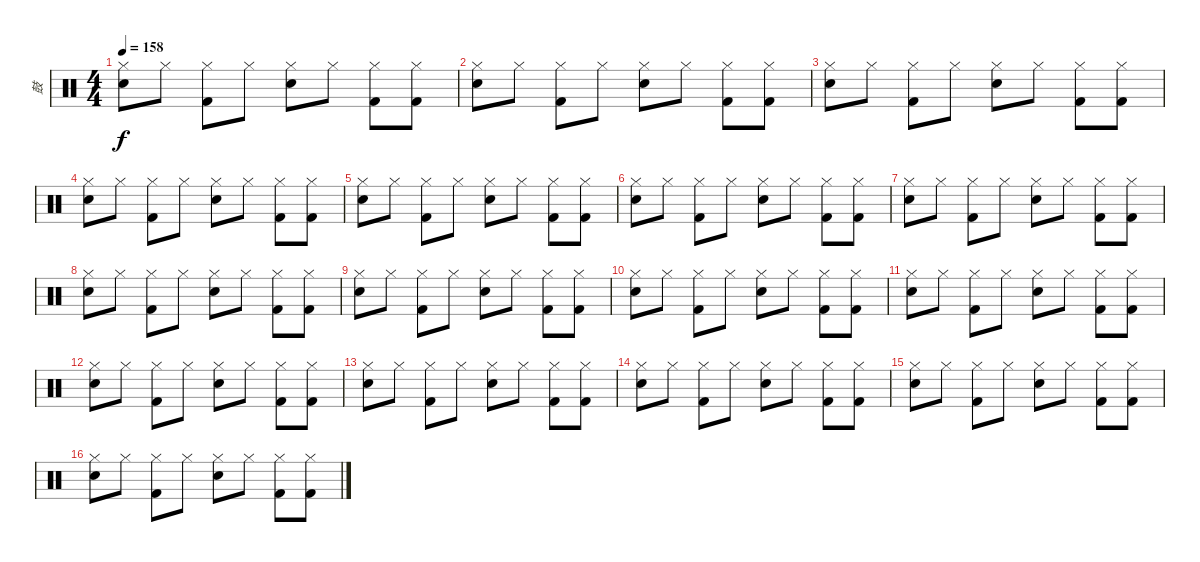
\track ("鼓" "鼓") {instrument percussion}
\staff {score}
\articulation defaults
\ts (4 4)
\tempo 158
\clef neutral
\ks c
("Hi-Hat (closed)" "Electric Snare (hit)").8{dy f} "Hi-Hat (closed)".8 ("Hi-Hat (closed)" "Kick (hit) 2").8 "Hi-Hat (closed)".8 ("Hi-Hat (closed)" "Electric Snare (hit)").8 "Hi-Hat (closed)".8 ("Hi-Hat (closed)" "Kick (hit) 2").8 ("Hi-Hat (closed)" "Kick (hit) 2").8 |
("Hi-Hat (closed)" "Electric Snare (hit)").8 "Hi-Hat (closed)".8 ("Hi-Hat (closed)" "Kick (hit) 2").8 "Hi-Hat (closed)".8 ("Hi-Hat (closed)" "Electric Snare (hit)").8 "Hi-Hat (closed)".8 ("Hi-Hat (closed)" "Kick (hit) 2").8 ("Hi-Hat (closed)" "Kick (hit) 2").8 |
("Hi-Hat (closed)" "Electric Snare (hit)").8 "Hi-Hat (closed)".8 ("Hi-Hat (closed)" "Kick (hit) 2").8 "Hi-Hat (closed)".8 ("Hi-Hat (closed)" "Electric Snare (hit)").8 "Hi-Hat (closed)".8 ("Hi-Hat (closed)" "Kick (hit) 2").8 ("Hi-Hat (closed)" "Kick (hit) 2").8 |
("Hi-Hat (closed)" "Electric Snare (hit)").8 "Hi-Hat (closed)".8 ("Hi-Hat (closed)" "Kick (hit) 2").8 "Hi-Hat (closed)".8 ("Hi-Hat (closed)" "Electric Snare (hit)").8 "Hi-Hat (closed)".8 ("Hi-Hat (closed)" "Kick (hit) 2").8 ("Hi-Hat (closed)" "Kick (hit) 2").8 |
("Hi-Hat (closed)" "Electric Snare (hit)").8 "Hi-Hat (closed)".8 ("Hi-Hat (closed)" "Kick (hit) 2").8 "Hi-Hat (closed)".8 ("Hi-Hat (closed)" "Electric Snare (hit)").8 "Hi-Hat (closed)".8 ("Hi-Hat (closed)" "Kick (hit) 2").8 ("Hi-Hat (closed)" "Kick (hit) 2").8 |
("Hi-Hat (closed)" "Electric Snare (hit)").8 "Hi-Hat (closed)".8 ("Hi-Hat (closed)" "Kick (hit) 2").8 "Hi-Hat (closed)".8 ("Hi-Hat (closed)" "Electric Snare (hit)").8 "Hi-Hat (closed)".8 ("Hi-Hat (closed)" "Kick (hit) 2").8 ("Hi-Hat (closed)" "Kick (hit) 2").8 |
("Hi-Hat (closed)" "Electric Snare (hit)").8 "Hi-Hat (closed)".8 ("Hi-Hat (closed)" "Kick (hit) 2").8 "Hi-Hat (closed)".8 ("Hi-Hat (closed)" "Electric Snare (hit)").8 "Hi-Hat (closed)".8 ("Hi-Hat (closed)" "Kick (hit) 2").8 ("Hi-Hat (closed)" "Kick (hit) 2").8 |
("Hi-Hat (closed)" "Electric Snare (hit)").8 "Hi-Hat (closed)".8 ("Hi-Hat (closed)" "Kick (hit) 2").8 "Hi-Hat (closed)".8 ("Hi-Hat (closed)" "Electric Snare (hit)").8 "Hi-Hat (closed)".8 ("Hi-Hat (closed)" "Kick (hit) 2").8 ("Hi-Hat (closed)" "Kick (hit) 2").8 |
("Hi-Hat (closed)" "Electric Snare (hit)").8 "Hi-Hat (closed)".8 ("Hi-Hat (closed)" "Kick (hit) 2").8 "Hi-Hat (closed)".8 ("Hi-Hat (closed)" "Electric Snare (hit)").8 "Hi-Hat (closed)".8 ("Hi-Hat (closed)" "Kick (hit) 2").8 ("Hi-Hat (closed)" "Kick (hit) 2").8 |
("Hi-Hat (closed)" "Electric Snare (hit)").8 "Hi-Hat (closed)".8 ("Hi-Hat (closed)" "Kick (hit) 2").8 "Hi-Hat (closed)".8 ("Hi-Hat (closed)" "Electric Snare (hit)").8 "Hi-Hat (closed)".8 ("Hi-Hat (closed)" "Kick (hit) 2").8 ("Hi-Hat (closed)" "Kick (hit) 2").8 |
("Hi-Hat (closed)" "Electric Snare (hit)").8 "Hi-Hat (closed)".8 ("Hi-Hat (closed)" "Kick (hit) 2").8 "Hi-Hat (closed)".8 ("Hi-Hat (closed)" "Electric Snare (hit)").8 "Hi-Hat (closed)".8 ("Hi-Hat (closed)" "Kick (hit) 2").8 ("Hi-Hat (closed)" "Kick (hit) 2").8 |
("Hi-Hat (closed)" "Electric Snare (hit)").8 "Hi-Hat (closed)".8 ("Hi-Hat (closed)" "Kick (hit) 2").8 "Hi-Hat (closed)".8 ("Hi-Hat (closed)" "Electric Snare (hit)").8 "Hi-Hat (closed)".8 ("Hi-Hat (closed)" "Kick (hit) 2").8 ("Hi-Hat (closed)" "Kick (hit) 2").8 |
("Hi-Hat (closed)" "Electric Snare (hit)").8 "Hi-Hat (closed)".8 ("Hi-Hat (closed)" "Kick (hit) 2").8 "Hi-Hat (closed)".8 ("Hi-Hat (closed)" "Electric Snare (hit)").8 "Hi-Hat (closed)".8 ("Hi-Hat (closed)" "Kick (hit) 2").8 ("Hi-Hat (closed)" "Kick (hit) 2").8 |
("Hi-Hat (closed)" "Electric Snare (hit)").8 "Hi-Hat (closed)".8 ("Hi-Hat (closed)" "Kick (hit) 2").8 "Hi-Hat (closed)".8 ("Hi-Hat (closed)" "Electric Snare (hit)").8 "Hi-Hat (closed)".8 ("Hi-Hat (closed)" "Kick (hit) 2").8 ("Hi-Hat (closed)" "Kick (hit) 2").8 |
("Hi-Hat (closed)" "Electric Snare (hit)").8 "Hi-Hat (closed)".8 ("Hi-Hat (closed)" "Kick (hit) 2").8 "Hi-Hat (closed)".8 ("Hi-Hat (closed)" "Electric Snare (hit)").8 "Hi-Hat (closed)".8 ("Hi-Hat (closed)" "Kick (hit) 2").8 ("Hi-Hat (closed)" "Kick (hit) 2").8 |
("Hi-Hat (closed)" "Electric Snare (hit)").8 "Hi-Hat (closed)".8 ("Hi-Hat (closed)" "Kick (hit) 2").8 "Hi-Hat (closed)".8 ("Hi-Hat (closed)" "Electric Snare (hit)").8 "Hi-Hat (closed)".8 ("Hi-Hat (closed)" "Kick (hit) 2").8 ("Hi-Hat (closed)" "Kick (hit) 2").8
